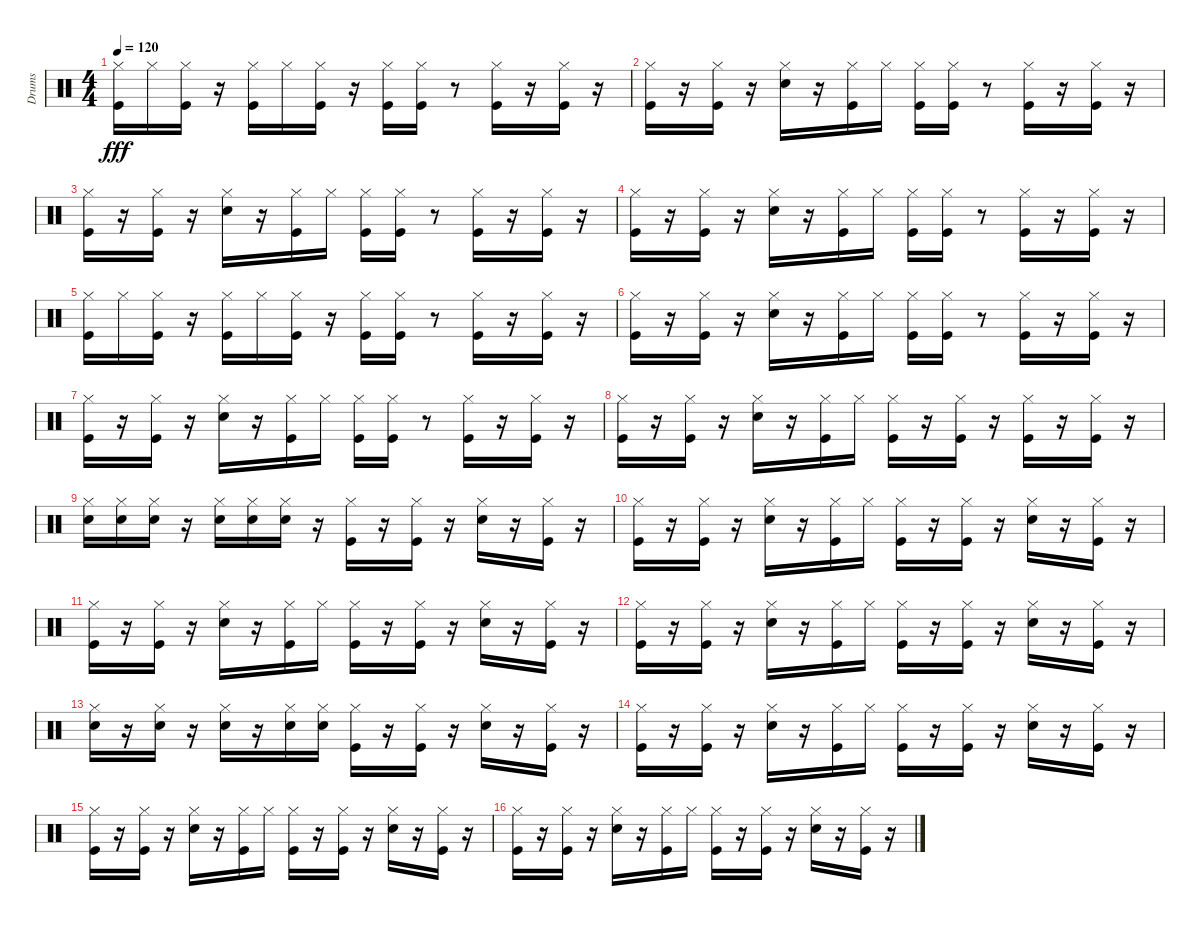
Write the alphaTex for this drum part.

\track ("Drums" "Drums") {instrument percussion}
\staff {score}
\articulation defaults
\ts (4 4)
\tempo 120
\clef neutral
\ks c
("Kick (hit)" "Hi-Hat (closed)").16{dy fff} "Hi-Hat (closed)".16 ("Kick (hit)" "Hi-Hat (closed)").16 r.16 ("Kick (hit)" "Hi-Hat (closed)").16 "Hi-Hat (closed)".16 ("Kick (hit)" "Hi-Hat (closed)").16 r.16 ("Kick (hit)" "Hi-Hat (closed)").16 ("Kick (hit)" "Hi-Hat (closed)").16 r.8 ("Kick (hit)" "Hi-Hat (closed)").16 r.16 ("Kick (hit)" "Hi-Hat (closed)").16 r.16 |
("Kick (hit)" "Hi-Hat (closed)").16 r.16 ("Kick (hit)" "Hi-Hat (closed)").16 r.16 ("Snare (hit) 2" "Hi-Hat (closed)").16 r.16 ("Kick (hit)" "Hi-Hat (closed)").16 "Hi-Hat (closed)".16 ("Kick (hit)" "Hi-Hat (closed)").16 ("Kick (hit)" "Hi-Hat (closed)").16 r.8 ("Kick (hit)" "Hi-Hat (closed)").16 r.16 ("Kick (hit)" "Hi-Hat (closed)").16 r.16 |
("Kick (hit)" "Hi-Hat (closed)").16 r.16 ("Kick (hit)" "Hi-Hat (closed)").16 r.16 ("Snare (hit) 2" "Hi-Hat (closed)").16 r.16 ("Kick (hit)" "Hi-Hat (closed)").16 "Hi-Hat (closed)".16 ("Kick (hit)" "Hi-Hat (closed)").16 ("Kick (hit)" "Hi-Hat (closed)").16 r.8 ("Kick (hit)" "Hi-Hat (closed)").16 r.16 ("Kick (hit)" "Hi-Hat (closed)").16 r.16 |
("Kick (hit)" "Hi-Hat (closed)").16 r.16 ("Kick (hit)" "Hi-Hat (closed)").16 r.16 ("Snare (hit) 2" "Hi-Hat (closed)").16 r.16 ("Kick (hit)" "Hi-Hat (closed)").16 "Hi-Hat (closed)".16 ("Kick (hit)" "Hi-Hat (closed)").16 ("Kick (hit)" "Hi-Hat (closed)").16 r.8 ("Kick (hit)" "Hi-Hat (closed)").16 r.16 ("Kick (hit)" "Hi-Hat (closed)").16 r.16 |
("Kick (hit)" "Hi-Hat (closed)").16 "Hi-Hat (closed)".16 ("Kick (hit)" "Hi-Hat (closed)").16 r.16 ("Kick (hit)" "Hi-Hat (closed)").16 "Hi-Hat (closed)".16 ("Kick (hit)" "Hi-Hat (closed)").16 r.16 ("Kick (hit)" "Hi-Hat (closed)").16 ("Kick (hit)" "Hi-Hat (closed)").16 r.8 ("Kick (hit)" "Hi-Hat (closed)").16 r.16 ("Kick (hit)" "Hi-Hat (closed)").16 r.16 |
("Kick (hit)" "Hi-Hat (closed)").16 r.16 ("Kick (hit)" "Hi-Hat (closed)").16 r.16 ("Snare (hit) 2" "Hi-Hat (closed)").16 r.16 ("Kick (hit)" "Hi-Hat (closed)").16 "Hi-Hat (closed)".16 ("Kick (hit)" "Hi-Hat (closed)").16 ("Kick (hit)" "Hi-Hat (closed)").16 r.8 ("Kick (hit)" "Hi-Hat (closed)").16 r.16 ("Kick (hit)" "Hi-Hat (closed)").16 r.16 |
("Kick (hit)" "Hi-Hat (closed)").16 r.16 ("Kick (hit)" "Hi-Hat (closed)").16 r.16 ("Snare (hit) 2" "Hi-Hat (closed)").16 r.16 ("Kick (hit)" "Hi-Hat (closed)").16 "Hi-Hat (closed)".16 ("Kick (hit)" "Hi-Hat (closed)").16 ("Kick (hit)" "Hi-Hat (closed)").16 r.8 ("Kick (hit)" "Hi-Hat (closed)").16 r.16 ("Kick (hit)" "Hi-Hat (closed)").16 r.16 |
("Kick (hit)" "Hi-Hat (closed)").16 r.16 ("Kick (hit)" "Hi-Hat (closed)").16 r.16 ("Snare (hit) 2" "Hi-Hat (closed)").16 r.16 ("Kick (hit)" "Hi-Hat (closed)").16 "Hi-Hat (closed)".16 ("Kick (hit)" "Hi-Hat (closed)").16 r.16 ("Kick (hit)" "Hi-Hat (closed)").16 r.16 ("Kick (hit)" "Hi-Hat (closed)").16 r.16 ("Kick (hit)" "Hi-Hat (closed)").16 r.16 |
("Snare (hit) 2" "Hi-Hat (closed)").16 ("Snare (hit) 2" "Hi-Hat (closed)").16 ("Snare (hit) 2" "Hi-Hat (closed)").16 r.16 ("Snare (hit) 2" "Hi-Hat (closed)").16 ("Snare (hit) 2" "Hi-Hat (closed)").16 ("Snare (hit) 2" "Hi-Hat (closed)").16 r.16 ("Kick (hit)" "Hi-Hat (closed)").16 r.16 ("Kick (hit)" "Hi-Hat (closed)").16 r.16 ("Snare (hit) 2" "Hi-Hat (closed)").16 r.16 ("Kick (hit)" "Hi-Hat (closed)").16 r.16 |
("Kick (hit)" "Hi-Hat (closed)").16 r.16 ("Kick (hit)" "Hi-Hat (closed)").16 r.16 ("Snare (hit) 2" "Hi-Hat (closed)").16 r.16 ("Kick (hit)" "Hi-Hat (closed)").16 "Hi-Hat (closed)".16 ("Kick (hit)" "Hi-Hat (closed)").16 r.16 ("Kick (hit)" "Hi-Hat (closed)").16 r.16 ("Snare (hit) 2" "Hi-Hat (closed)").16 r.16 ("Kick (hit)" "Hi-Hat (closed)").16 r.16 |
("Kick (hit)" "Hi-Hat (closed)").16 r.16 ("Kick (hit)" "Hi-Hat (closed)").16 r.16 ("Snare (hit) 2" "Hi-Hat (closed)").16 r.16 ("Kick (hit)" "Hi-Hat (closed)").16 "Hi-Hat (closed)".16 ("Kick (hit)" "Hi-Hat (closed)").16 r.16 ("Kick (hit)" "Hi-Hat (closed)").16 r.16 ("Snare (hit) 2" "Hi-Hat (closed)").16 r.16 ("Kick (hit)" "Hi-Hat (closed)").16 r.16 |
("Kick (hit)" "Hi-Hat (closed)").16 r.16 ("Kick (hit)" "Hi-Hat (closed)").16 r.16 ("Snare (hit) 2" "Hi-Hat (closed)").16 r.16 ("Kick (hit)" "Hi-Hat (closed)").16 "Hi-Hat (closed)".16 ("Kick (hit)" "Hi-Hat (closed)").16 r.16 ("Kick (hit)" "Hi-Hat (closed)").16 r.16 ("Snare (hit) 2" "Hi-Hat (closed)").16 r.16 ("Kick (hit)" "Hi-Hat (closed)").16 r.16 |
("Snare (hit) 2" "Hi-Hat (closed)").16 r.16 ("Snare (hit) 2" "Hi-Hat (closed)").16 r.16 ("Snare (hit) 2" "Hi-Hat (closed)").16 r.16 ("Snare (hit) 2" "Hi-Hat (closed)").16 ("Snare (hit) 2" "Hi-Hat (closed)").16 ("Kick (hit)" "Hi-Hat (closed)").16 r.16 ("Kick (hit)" "Hi-Hat (closed)").16 r.16 ("Snare (hit) 2" "Hi-Hat (closed)").16 r.16 ("Kick (hit)" "Hi-Hat (closed)").16 r.16 |
("Kick (hit)" "Hi-Hat (closed)").16 r.16 ("Kick (hit)" "Hi-Hat (closed)").16 r.16 ("Snare (hit) 2" "Hi-Hat (closed)").16 r.16 ("Kick (hit)" "Hi-Hat (closed)").16 "Hi-Hat (closed)".16 ("Kick (hit)" "Hi-Hat (closed)").16 r.16 ("Kick (hit)" "Hi-Hat (closed)").16 r.16 ("Snare (hit) 2" "Hi-Hat (closed)").16 r.16 ("Kick (hit)" "Hi-Hat (closed)").16 r.16 |
("Kick (hit)" "Hi-Hat (closed)").16 r.16 ("Kick (hit)" "Hi-Hat (closed)").16 r.16 ("Snare (hit) 2" "Hi-Hat (closed)").16 r.16 ("Kick (hit)" "Hi-Hat (closed)").16 "Hi-Hat (closed)".16 ("Kick (hit)" "Hi-Hat (closed)").16 r.16 ("Kick (hit)" "Hi-Hat (closed)").16 r.16 ("Snare (hit) 2" "Hi-Hat (closed)").16 r.16 ("Kick (hit)" "Hi-Hat (closed)").16 r.16 |
("Kick (hit)" "Hi-Hat (closed)").16 r.16 ("Kick (hit)" "Hi-Hat (closed)").16 r.16 ("Snare (hit) 2" "Hi-Hat (closed)").16 r.16 ("Kick (hit)" "Hi-Hat (closed)").16 "Hi-Hat (closed)".16 ("Kick (hit)" "Hi-Hat (closed)").16 r.16 ("Kick (hit)" "Hi-Hat (closed)").16 r.16 ("Snare (hit) 2" "Hi-Hat (closed)").16 r.16 ("Kick (hit)" "Hi-Hat (closed)").16 r.16
